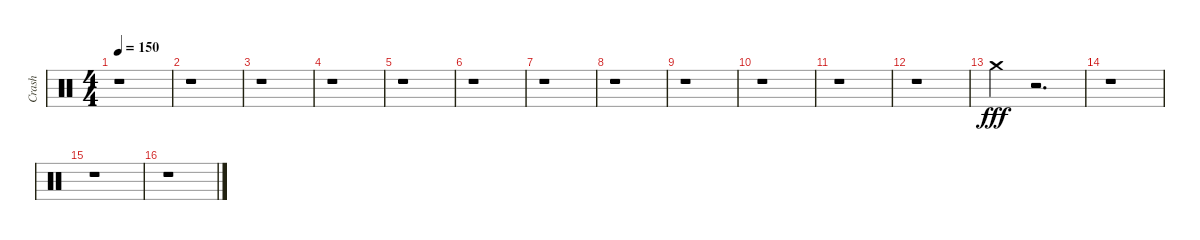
\track ("Crash" "Crash") {instrument percussion}
\staff {score}
\articulation defaults
\ts (4 4)
\tempo 150
\clef neutral
\ks c
r.1{dy fff} |
r.1 |
r.1 |
r.1 |
r.1 |
r.1 |
r.1 |
r.1 |
r.1 |
r.1 |
r.1 |
r.1 |
"Crash medium (hit)".4 r.2{d} |
r.1 |
r.1 |
r.1
